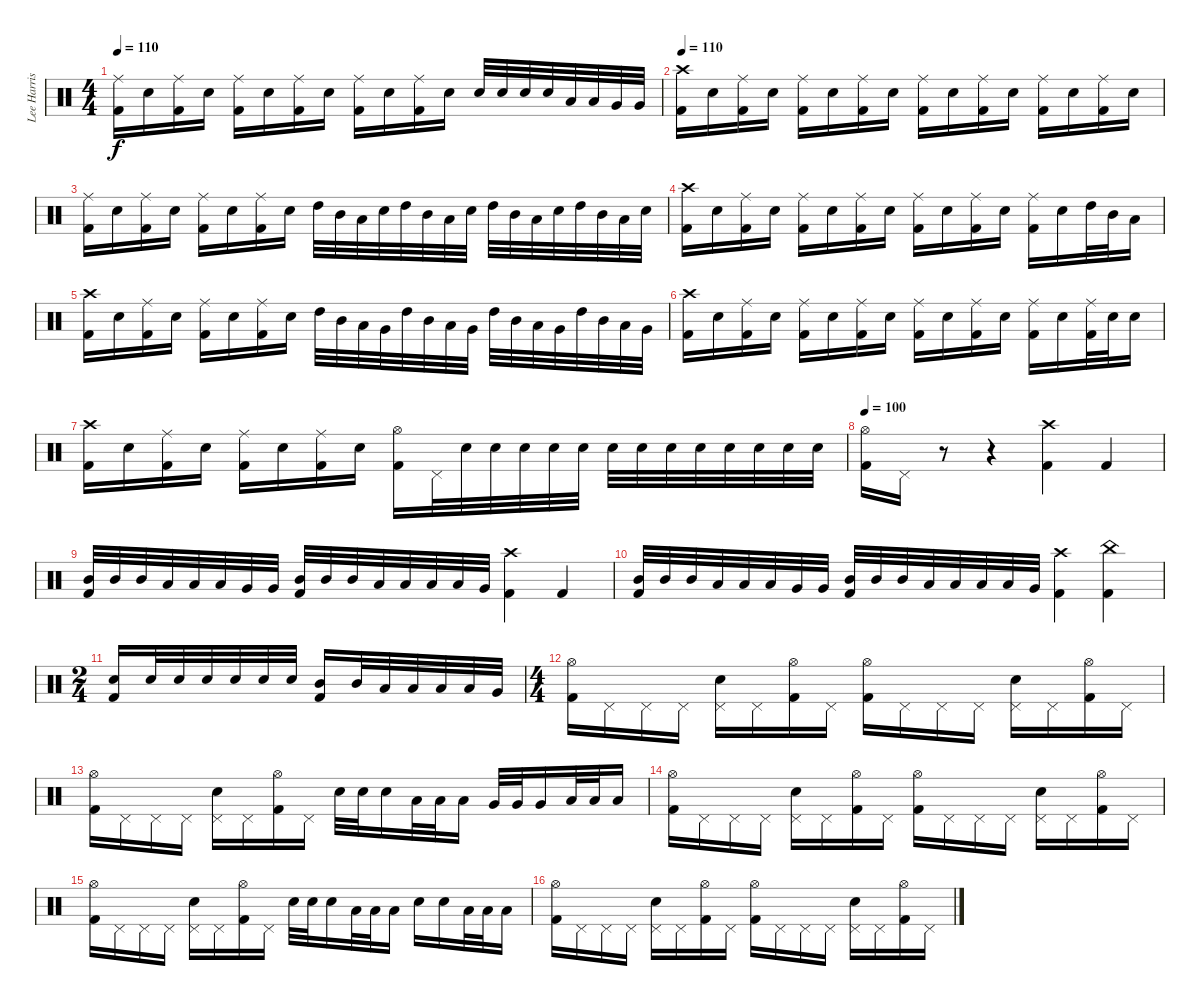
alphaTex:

\track ("Lee Harrison" "Lee Harris") {instrument percussion}
\staff {score}
\articulation defaults
\ts (4 4)
\tempo 110
\clef neutral
\ks c
("Ride (middle)" "Kick (hit) 2").16{dy f} "Electric Snare (hit)".16 ("Ride (middle)" "Kick (hit) 2").16 "Electric Snare (hit)".16 ("Ride (middle)" "Kick (hit) 2").16 "Electric Snare (hit)".16 ("Ride (middle)" "Kick (hit) 2").16 "Electric Snare (hit)".16 ("Ride (middle)" "Kick (hit) 2").16 "Electric Snare (hit)".16 ("Ride (middle)" "Kick (hit) 2").16 "Electric Snare (hit)".16 "Electric Snare (hit)".32 "Electric Snare (hit)".32 "Electric Snare (hit)".32 "Electric Snare (hit)".32 "Low Tom (hit)".32 "Low Tom (hit)".32 "Very Low Tom (hit)".32 "Very Low Tom (hit)".32 |
\tempo 110
("Crash high (hit)" "Kick (hit) 2").16 "Electric Snare (hit)".16 ("Ride (middle)" "Kick (hit) 2").16 "Electric Snare (hit)".16 ("Ride (middle)" "Kick (hit) 2").16 "Electric Snare (hit)".16 ("Ride (middle)" "Kick (hit) 2").16 "Electric Snare (hit)".16 ("Ride (middle)" "Kick (hit) 2").16 "Electric Snare (hit)".16 ("Ride (middle)" "Kick (hit) 2").16 "Electric Snare (hit)".16 ("Ride (middle)" "Kick (hit) 2").16 "Electric Snare (hit)".16 ("Ride (middle)" "Kick (hit) 2").16 "Electric Snare (hit)".16 |
("Ride (middle)" "Kick (hit) 2").16 "Electric Snare (hit)".16 ("Ride (middle)" "Kick (hit) 2").16 "Electric Snare (hit)".16 ("Ride (middle)" "Kick (hit) 2").16 "Electric Snare (hit)".16 ("Ride (middle)" "Kick (hit) 2").16 "Electric Snare (hit)".16 "High Tom (hit)".32 "Mid Tom (hit)".32 "Low Tom (hit)".32 "Electric Snare (hit)".32 "High Tom (hit)".32 "Mid Tom (hit)".32 "Low Tom (hit)".32 "Electric Snare (hit)".32 "High Tom (hit)".32 "Mid Tom (hit)".32 "Low Tom (hit)".32 "Electric Snare (hit)".32 "High Tom (hit)".32 "Mid Tom (hit)".32 "Low Tom (hit)".32 "Electric Snare (hit)".32 |
("Crash high (hit)" "Kick (hit) 2").16 "Electric Snare (hit)".16 ("Ride (middle)" "Kick (hit) 2").16 "Electric Snare (hit)".16 ("Ride (middle)" "Kick (hit) 2").16 "Electric Snare (hit)".16 ("Ride (middle)" "Kick (hit) 2").16 "Electric Snare (hit)".16 ("Ride (middle)" "Kick (hit) 2").16 "Electric Snare (hit)".16 ("Ride (middle)" "Kick (hit) 2").16 "Electric Snare (hit)".16 ("Ride (middle)" "Kick (hit) 2").16 "Electric Snare (hit)".16 "High Tom (hit)".32 "Mid Tom (hit)".32 "Low Tom (hit)".16 |
("Crash high (hit)" "Kick (hit) 2").16 "Electric Snare (hit)".16 ("Ride (middle)" "Kick (hit) 2").16 "Electric Snare (hit)".16 ("Ride (middle)" "Kick (hit) 2").16 "Electric Snare (hit)".16 ("Ride (middle)" "Kick (hit) 2").16 "Electric Snare (hit)".16 "High Tom (hit)".32 "Mid Tom (hit)".32 "Low Tom (hit)".32 "Very Low Tom (hit)".32 "High Tom (hit)".32 "Mid Tom (hit)".32 "Low Tom (hit)".32 "Very Low Tom (hit)".32 "High Tom (hit)".32 "Mid Tom (hit)".32 "Low Tom (hit)".32 "Very Low Tom (hit)".32 "High Tom (hit)".32 "Mid Tom (hit)".32 "Low Tom (hit)".32 "Very Low Tom (hit)".32 |
("Crash high (hit)" "Kick (hit) 2").16 "Electric Snare (hit)".16 ("Ride (middle)" "Kick (hit) 2").16 "Electric Snare (hit)".16 ("Ride (middle)" "Kick (hit) 2").16 "Electric Snare (hit)".16 ("Ride (middle)" "Kick (hit) 2").16 "Electric Snare (hit)".16 ("Ride (middle)" "Kick (hit) 2").16 "Electric Snare (hit)".16 ("Ride (middle)" "Kick (hit) 2").16 "Electric Snare (hit)".16 ("Ride (middle)" "Kick (hit) 2").16 "Electric Snare (hit)".16 ("Ride (middle)" "Kick (hit) 2").32 "Electric Snare (hit)".32 "Electric Snare (hit)".16 |
("Crash high (hit)" "Kick (hit) 2").16 "Electric Snare (hit)".16 ("Ride (middle)" "Kick (hit) 2").16 "Electric Snare (hit)".16 ("Ride (middle)" "Kick (hit) 2").16 "Electric Snare (hit)".16 ("Ride (middle)" "Kick (hit) 2").16 "Electric Snare (hit)".16 ("Hi-Hat (open)" "Kick (hit) 2").16 "Pedal Hi-Hat (hit)".32 "Electric Snare (hit)".32 "Electric Snare (hit)".32 "Electric Snare (hit)".32 "Electric Snare (hit)".32 "Electric Snare (hit)".32 "Electric Snare (hit)".32 "Electric Snare (hit)".32 "Electric Snare (hit)".32 "Electric Snare (hit)".32 "Electric Snare (hit)".32 "Electric Snare (hit)".32 "Electric Snare (hit)".32 "Electric Snare (hit)".32 |
\section ("" "")
\tempo 100
("Hi-Hat (open)" "Kick (hit) 2").16 "Pedal Hi-Hat (hit)".16 r.8 r.4 ("Crash high (hit)" "Kick (hit) 2").4 "Kick (hit) 2".4 |
("Mid Tom (hit)" "Kick (hit) 2").32 "Mid Tom (hit)".32 "Mid Tom (hit)".32 "Low Tom (hit)".32 "Low Tom (hit)".32 "Low Tom (hit)".32 "Very Low Tom (hit)".32 "Very Low Tom (hit)".32 ("Mid Tom (hit)" "Kick (hit) 2").32 "Mid Tom (hit)".32 "Mid Tom (hit)".32 "Low Tom (hit)".32 "Low Tom (hit)".32 "Low Tom (hit)".32 "Low Tom (hit)".32 "Very Low Tom (hit)".32 ("Crash high (hit)" "Kick (hit) 2").4 "Kick (hit) 2".4 |
("Mid Tom (hit)" "Kick (hit) 2").32 "Mid Tom (hit)".32 "Mid Tom (hit)".32 "Low Tom (hit)".32 "Low Tom (hit)".32 "Low Tom (hit)".32 "Very Low Tom (hit)".32 "Very Low Tom (hit)".32 ("Mid Tom (hit)" "Kick (hit) 2").32 "Mid Tom (hit)".32 "Mid Tom (hit)".32 "Low Tom (hit)".32 "Low Tom (hit)".32 "Low Tom (hit)".32 "Low Tom (hit)".32 "Very Low Tom (hit)".32 ("Crash high (hit)" "Kick (hit) 2").4 ("China (hit)" "Kick (hit) 2").4 |
\ts (2 4)
("Electric Snare (hit)" "Kick (hit) 2").16 "Electric Snare (hit)".32 "Electric Snare (hit)".32 "Electric Snare (hit)".32 "Electric Snare (hit)".32 "Electric Snare (hit)".32 "Electric Snare (hit)".32 ("Mid Tom (hit)" "Kick (hit) 2").16 "Mid Tom (hit)".32 "Low Tom (hit)".32 "Low Tom (hit)".32 "Low Tom (hit)".32 "Low Tom (hit)".32 "Very Low Tom (hit)".32 |
\ts (4 4)
\section ("" "")
("Hi-Hat (open)" "Kick (hit) 2").16 "Pedal Hi-Hat (hit)".16 "Pedal Hi-Hat (hit)".16 "Pedal Hi-Hat (hit)".16 ("Pedal Hi-Hat (hit)" "Electric Snare (hit)").16 "Pedal Hi-Hat (hit)".16 ("Hi-Hat (open)" "Kick (hit) 2").16 "Pedal Hi-Hat (hit)".16 ("Hi-Hat (open)" "Kick (hit) 2").16 "Pedal Hi-Hat (hit)".16 "Pedal Hi-Hat (hit)".16 "Pedal Hi-Hat (hit)".16 ("Pedal Hi-Hat (hit)" "Electric Snare (hit)").16 "Pedal Hi-Hat (hit)".16 ("Hi-Hat (open)" "Kick (hit) 2").16 "Pedal Hi-Hat (hit)".16 |
("Hi-Hat (open)" "Kick (hit) 2").16 "Pedal Hi-Hat (hit)".16 "Pedal Hi-Hat (hit)".16 "Pedal Hi-Hat (hit)".16 ("Pedal Hi-Hat (hit)" "Electric Snare (hit)").16 "Pedal Hi-Hat (hit)".16 ("Hi-Hat (open)" "Kick (hit) 2").16 "Pedal Hi-Hat (hit)".16 "Electric Snare (hit)".32 "Electric Snare (hit)".32 "Electric Snare (hit)".16 "Low Tom (hit)".32 "Low Tom (hit)".32 "Low Tom (hit)".16 "Very Low Tom (hit)".32 "Very Low Tom (hit)".32 "Very Low Tom (hit)".16 "Low Floor Tom (hit)".32 "Low Floor Tom (hit)".32 "Low Floor Tom (hit)".16 |
("Hi-Hat (open)" "Kick (hit) 2").16 "Pedal Hi-Hat (hit)".16 "Pedal Hi-Hat (hit)".16 "Pedal Hi-Hat (hit)".16 ("Pedal Hi-Hat (hit)" "Electric Snare (hit)").16 "Pedal Hi-Hat (hit)".16 ("Hi-Hat (open)" "Kick (hit) 2").16 "Pedal Hi-Hat (hit)".16 ("Hi-Hat (open)" "Kick (hit) 2").16 "Pedal Hi-Hat (hit)".16 "Pedal Hi-Hat (hit)".16 "Pedal Hi-Hat (hit)".16 ("Pedal Hi-Hat (hit)" "Electric Snare (hit)").16 "Pedal Hi-Hat (hit)".16 ("Hi-Hat (open)" "Kick (hit) 2").16 "Pedal Hi-Hat (hit)".16 |
("Hi-Hat (open)" "Kick (hit) 2").16 "Pedal Hi-Hat (hit)".16 "Pedal Hi-Hat (hit)".16 "Pedal Hi-Hat (hit)".16 ("Pedal Hi-Hat (hit)" "Electric Snare (hit)").16 "Pedal Hi-Hat (hit)".16 ("Hi-Hat (open)" "Kick (hit) 2").16 "Pedal Hi-Hat (hit)".16 "Electric Snare (hit)".32 "Electric Snare (hit)".32 "Electric Snare (hit)".16 "Low Tom (hit)".32 "Low Tom (hit)".32 "Low Tom (hit)".16 "Electric Snare (hit)".16 "Electric Snare (hit)".16 "Low Floor Tom (hit)".32 "Low Floor Tom (hit)".32 "Low Floor Tom (hit)".16 |
("Hi-Hat (open)" "Kick (hit) 2").16 "Pedal Hi-Hat (hit)".16 "Pedal Hi-Hat (hit)".16 "Pedal Hi-Hat (hit)".16 ("Pedal Hi-Hat (hit)" "Electric Snare (hit)").16 "Pedal Hi-Hat (hit)".16 ("Hi-Hat (open)" "Kick (hit) 2").16 "Pedal Hi-Hat (hit)".16 ("Hi-Hat (open)" "Kick (hit) 2").16 "Pedal Hi-Hat (hit)".16 "Pedal Hi-Hat (hit)".16 "Pedal Hi-Hat (hit)".16 ("Pedal Hi-Hat (hit)" "Electric Snare (hit)").16 "Pedal Hi-Hat (hit)".16 ("Hi-Hat (open)" "Kick (hit) 2").16 "Pedal Hi-Hat (hit)".16
